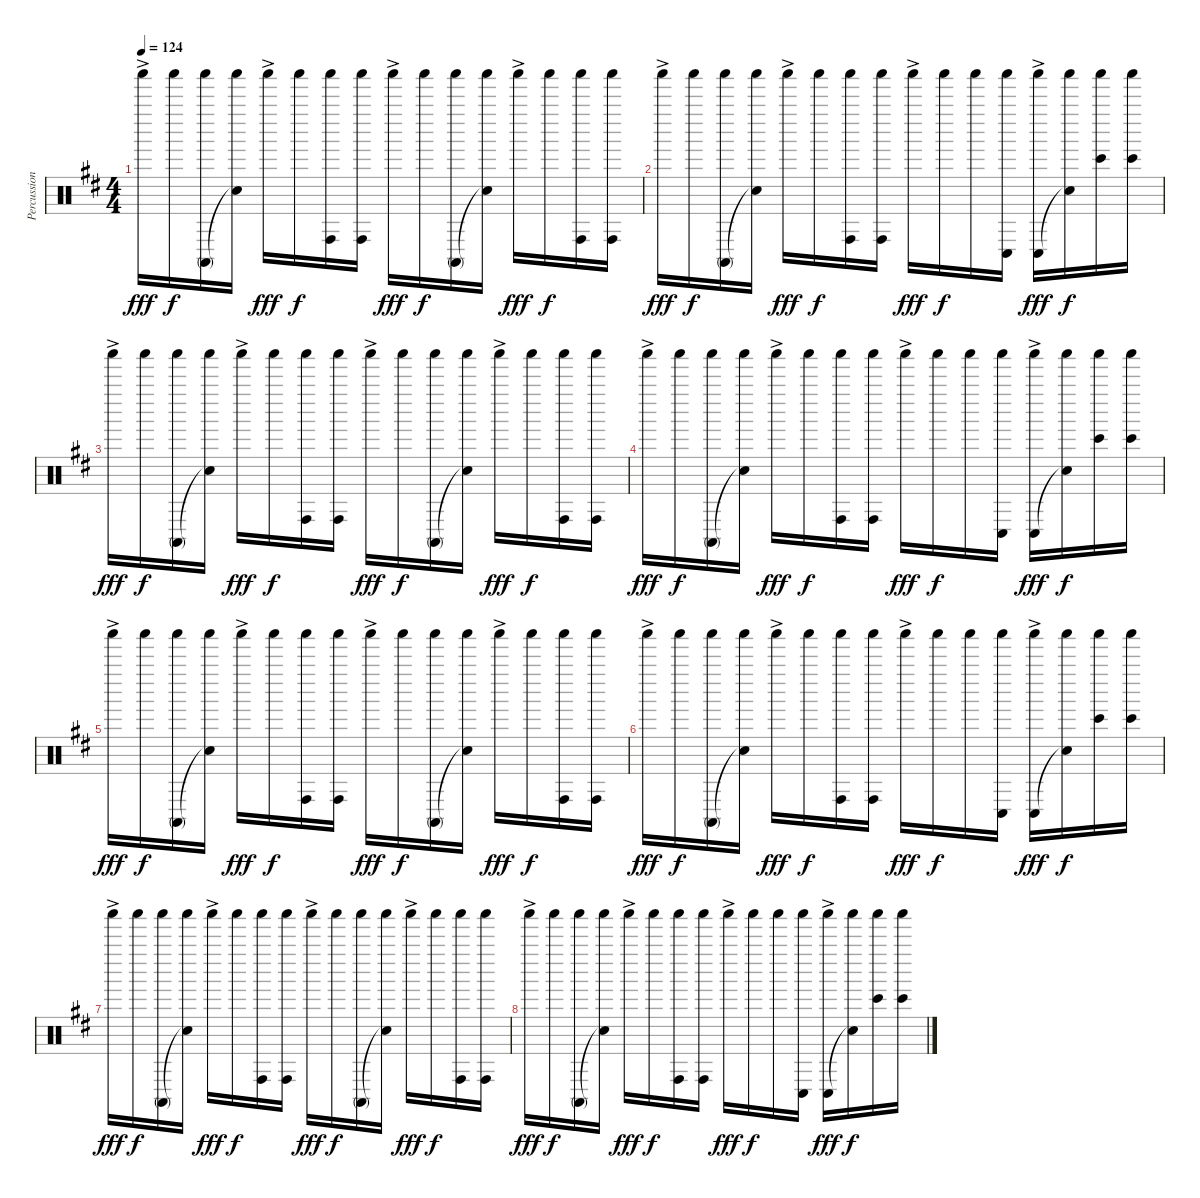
\track ("Percussion" "Percussion") {instrument percussion}
\staff {score}
\articulation defaults
\ts (4 4)
\tempo 124
\clef neutral
\ks d "Shaker (hit)"{ac}.16{dy fff} "Shaker (hit)".16{dy f}
("Shaker (hit)" "Conga high (mute)").16 ("Shaker (hit)" "Snare (hit)"{t}).16 "Shaker (hit)"{ac}.16{dy fff} "Shaker (hit)".16{dy f} ("Shaker (hit)" "Conga high (hit)").16 ("Shaker (hit)" "Conga high (hit)").16 "Shaker (hit)"{ac}.16{dy fff} "Shaker (hit)".16{dy f} ("Shaker (hit)" "Conga high (mute)").16 ("Shaker (hit)" "Snare (hit)"{t}).16 "Shaker (hit)"{ac}.16{dy fff} "Shaker (hit)".16{dy f} ("Shaker (hit)" "Conga high (hit)").16 ("Shaker (hit)" "Conga high (hit)").16 |
"Shaker (hit)"{ac}.16{dy fff} "Shaker (hit)".16{dy f} ("Shaker (hit)" "Conga high (mute)").16 ("Shaker (hit)" "Snare (hit)"{t}).16 "Shaker (hit)"{ac}.16{dy fff} "Shaker (hit)".16{dy f} ("Shaker (hit)" "Conga high (hit)").16 ("Shaker (hit)" "Conga high (hit)").16 "Shaker (hit)"{ac}.16{dy fff} "Shaker (hit)".16{dy f} "Shaker (hit)".16 ("Shaker (hit)" "Conga low (hit)").16 ("Shaker (hit)"{ac} "Conga low (hit)").16{dy fff} ("Shaker (hit)" "Snare (hit)"{t}).16{dy f} ("Shaker (hit)" "Bongo High (hit)").16 ("Shaker (hit)" "Bongo High (hit)").16 |
"Shaker (hit)"{ac}.16{dy fff} "Shaker (hit)".16{dy f} ("Shaker (hit)" "Conga high (mute)").16 ("Shaker (hit)" "Snare (hit)"{t}).16 "Shaker (hit)"{ac}.16{dy fff} "Shaker (hit)".16{dy f} ("Shaker (hit)" "Conga high (hit)").16 ("Shaker (hit)" "Conga high (hit)").16 "Shaker (hit)"{ac}.16{dy fff} "Shaker (hit)".16{dy f} ("Shaker (hit)" "Conga high (mute)").16 ("Shaker (hit)" "Snare (hit)"{t}).16 "Shaker (hit)"{ac}.16{dy fff} "Shaker (hit)".16{dy f} ("Shaker (hit)" "Conga high (hit)").16 ("Shaker (hit)" "Conga high (hit)").16 |
"Shaker (hit)"{ac}.16{dy fff} "Shaker (hit)".16{dy f} ("Shaker (hit)" "Conga high (mute)").16 ("Shaker (hit)" "Snare (hit)"{t}).16 "Shaker (hit)"{ac}.16{dy fff} "Shaker (hit)".16{dy f} ("Shaker (hit)" "Conga high (hit)").16 ("Shaker (hit)" "Conga high (hit)").16 "Shaker (hit)"{ac}.16{dy fff} "Shaker (hit)".16{dy f} "Shaker (hit)".16 ("Shaker (hit)" "Conga low (hit)").16 ("Shaker (hit)"{ac} "Conga low (hit)").16{dy fff} ("Shaker (hit)" "Snare (hit)"{t}).16{dy f} ("Shaker (hit)" "Bongo High (hit)").16 ("Shaker (hit)" "Bongo High (hit)").16 |
"Shaker (hit)"{ac}.16{dy fff} "Shaker (hit)".16{dy f} ("Shaker (hit)" "Conga high (mute)").16 ("Shaker (hit)" "Snare (hit)"{t}).16 "Shaker (hit)"{ac}.16{dy fff} "Shaker (hit)".16{dy f} ("Shaker (hit)" "Conga high (hit)").16 ("Shaker (hit)" "Conga high (hit)").16 "Shaker (hit)"{ac}.16{dy fff} "Shaker (hit)".16{dy f} ("Shaker (hit)" "Conga high (mute)").16 ("Shaker (hit)" "Snare (hit)"{t}).16 "Shaker (hit)"{ac}.16{dy fff} "Shaker (hit)".16{dy f} ("Shaker (hit)" "Conga high (hit)").16 ("Shaker (hit)" "Conga high (hit)").16 |
"Shaker (hit)"{ac}.16{dy fff} "Shaker (hit)".16{dy f} ("Shaker (hit)" "Conga high (mute)").16 ("Shaker (hit)" "Snare (hit)"{t}).16 "Shaker (hit)"{ac}.16{dy fff} "Shaker (hit)".16{dy f} ("Shaker (hit)" "Conga high (hit)").16 ("Shaker (hit)" "Conga high (hit)").16 "Shaker (hit)"{ac}.16{dy fff} "Shaker (hit)".16{dy f} "Shaker (hit)".16 ("Shaker (hit)" "Conga low (hit)").16 ("Shaker (hit)"{ac} "Conga low (hit)").16{dy fff} ("Shaker (hit)" "Snare (hit)"{t}).16{dy f} ("Shaker (hit)" "Bongo High (hit)").16 ("Shaker (hit)" "Bongo High (hit)").16 |
"Shaker (hit)"{ac}.16{dy fff} "Shaker (hit)".16{dy f} ("Shaker (hit)" "Conga high (mute)").16 ("Shaker (hit)" "Snare (hit)"{t}).16 "Shaker (hit)"{ac}.16{dy fff} "Shaker (hit)".16{dy f} ("Shaker (hit)" "Conga high (hit)").16 ("Shaker (hit)" "Conga high (hit)").16 "Shaker (hit)"{ac}.16{dy fff} "Shaker (hit)".16{dy f} ("Shaker (hit)" "Conga high (mute)").16 ("Shaker (hit)" "Snare (hit)"{t}).16 "Shaker (hit)"{ac}.16{dy fff} "Shaker (hit)".16{dy f} ("Shaker (hit)" "Conga high (hit)").16 ("Shaker (hit)" "Conga high (hit)").16 |
"Shaker (hit)"{ac}.16{dy fff} "Shaker (hit)".16{dy f} ("Shaker (hit)" "Conga high (mute)").16 ("Shaker (hit)" "Snare (hit)"{t}).16 "Shaker (hit)"{ac}.16{dy fff} "Shaker (hit)".16{dy f} ("Shaker (hit)" "Conga high (hit)").16 ("Shaker (hit)" "Conga high (hit)").16 "Shaker (hit)"{ac}.16{dy fff} "Shaker (hit)".16{dy f} "Shaker (hit)".16 ("Shaker (hit)" "Conga low (hit)").16 ("Shaker (hit)"{ac} "Conga low (hit)").16{dy fff} ("Shaker (hit)" "Snare (hit)"{t}).16{dy f} ("Shaker (hit)" "Bongo High (hit)").16 ("Shaker (hit)" "Bongo High (hit)").16
